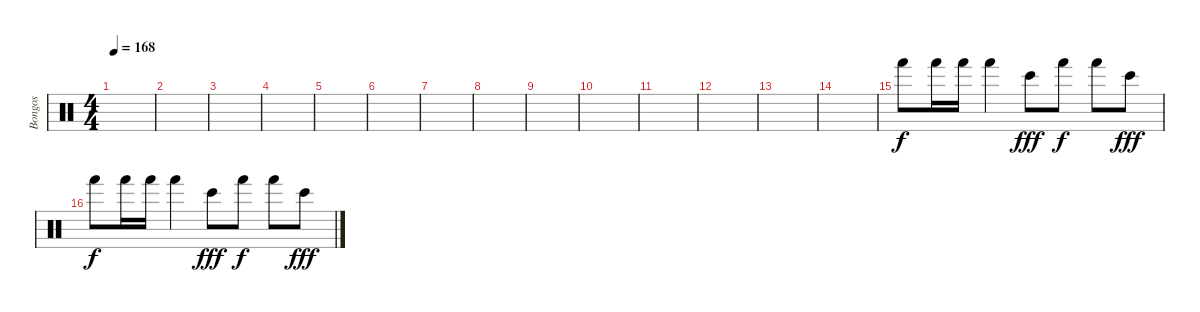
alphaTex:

\track ("Bongos" "Bongos") {instrument percussion}
\staff {score}
\articulation defaults
\ts (4 4)
\tempo 168
\clef neutral
\ks c
|
|
|
|
|
|
|
|
|
|
|
|
|
|
"Hand (hit)".8 "Hand (hit)".16 "Hand (hit)".16 "Hand (hit)".4 "Bongo High (hit)".8{dy fff} "Hand (hit)".8{dy f} "Hand (hit)".8 "Bongo High (hit)".8{dy fff} |
"Hand (hit)".8{dy f} "Hand (hit)".16 "Hand (hit)".16 "Hand (hit)".4 "Bongo High (hit)".8{dy fff} "Hand (hit)".8{dy f} "Hand (hit)".8 "Bongo High (hit)".8{dy fff}
